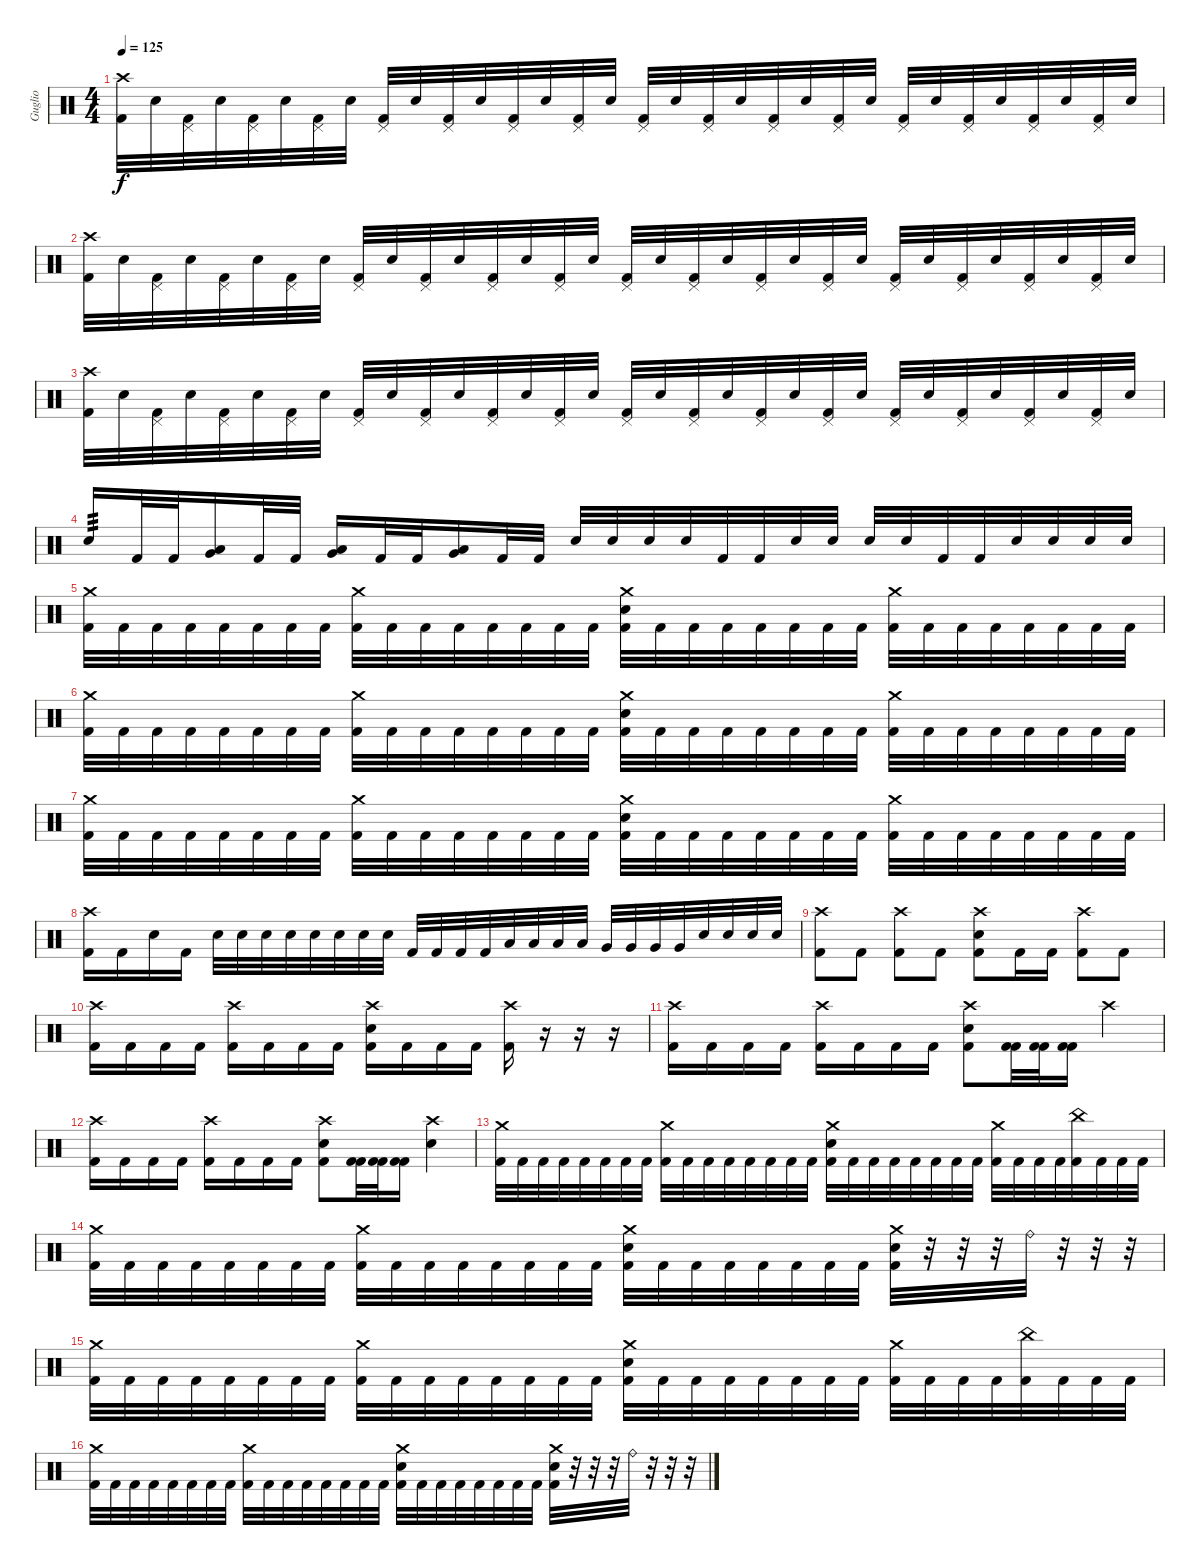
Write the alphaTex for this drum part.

\track ("Guglio" "Guglio") {instrument percussion}
\staff {score}
\articulation defaults
\ts (4 4)
\tempo 125
\clef neutral
\ks c
("Crash high (hit)" "Kick (hit) 2").32{dy f} "Electric Snare (hit)".32 ("Pedal Hi-Hat (hit)" "Kick (hit) 2").32 "Electric Snare (hit)".32 ("Pedal Hi-Hat (hit)" "Kick (hit) 2").32 "Electric Snare (hit)".32 ("Pedal Hi-Hat (hit)" "Kick (hit) 2").32 "Electric Snare (hit)".32 ("Pedal Hi-Hat (hit)" "Kick (hit) 2").32 "Electric Snare (hit)".32 ("Pedal Hi-Hat (hit)" "Kick (hit) 2").32 "Electric Snare (hit)".32 ("Pedal Hi-Hat (hit)" "Kick (hit) 2").32 "Electric Snare (hit)".32 ("Pedal Hi-Hat (hit)" "Kick (hit) 2").32 "Electric Snare (hit)".32 ("Pedal Hi-Hat (hit)" "Kick (hit) 2").32 "Electric Snare (hit)".32 ("Pedal Hi-Hat (hit)" "Kick (hit) 2").32 "Electric Snare (hit)".32 ("Pedal Hi-Hat (hit)" "Kick (hit) 2").32 "Electric Snare (hit)".32 ("Pedal Hi-Hat (hit)" "Kick (hit) 2").32 "Electric Snare (hit)".32 ("Pedal Hi-Hat (hit)" "Kick (hit) 2").32 "Electric Snare (hit)".32 ("Pedal Hi-Hat (hit)" "Kick (hit) 2").32 "Electric Snare (hit)".32 ("Pedal Hi-Hat (hit)" "Kick (hit) 2").32 "Electric Snare (hit)".32 ("Pedal Hi-Hat (hit)" "Kick (hit) 2").32 "Electric Snare (hit)".32 |
("Crash high (hit)" "Kick (hit) 2").32 "Electric Snare (hit)".32 ("Pedal Hi-Hat (hit)" "Kick (hit) 2").32 "Electric Snare (hit)".32 ("Pedal Hi-Hat (hit)" "Kick (hit) 2").32 "Electric Snare (hit)".32 ("Pedal Hi-Hat (hit)" "Kick (hit) 2").32 "Electric Snare (hit)".32 ("Pedal Hi-Hat (hit)" "Kick (hit) 2").32 "Electric Snare (hit)".32 ("Pedal Hi-Hat (hit)" "Kick (hit) 2").32 "Electric Snare (hit)".32 ("Pedal Hi-Hat (hit)" "Kick (hit) 2").32 "Electric Snare (hit)".32 ("Pedal Hi-Hat (hit)" "Kick (hit) 2").32 "Electric Snare (hit)".32 ("Pedal Hi-Hat (hit)" "Kick (hit) 2").32 "Electric Snare (hit)".32 ("Pedal Hi-Hat (hit)" "Kick (hit) 2").32 "Electric Snare (hit)".32 ("Pedal Hi-Hat (hit)" "Kick (hit) 2").32 "Electric Snare (hit)".32 ("Pedal Hi-Hat (hit)" "Kick (hit) 2").32 "Electric Snare (hit)".32 ("Pedal Hi-Hat (hit)" "Kick (hit) 2").32 "Electric Snare (hit)".32 ("Pedal Hi-Hat (hit)" "Kick (hit) 2").32 "Electric Snare (hit)".32 ("Pedal Hi-Hat (hit)" "Kick (hit) 2").32 "Electric Snare (hit)".32 ("Pedal Hi-Hat (hit)" "Kick (hit) 2").32 "Electric Snare (hit)".32 |
("Crash high (hit)" "Kick (hit) 2").32 "Electric Snare (hit)".32 ("Pedal Hi-Hat (hit)" "Kick (hit) 2").32 "Electric Snare (hit)".32 ("Pedal Hi-Hat (hit)" "Kick (hit) 2").32 "Electric Snare (hit)".32 ("Pedal Hi-Hat (hit)" "Kick (hit) 2").32 "Electric Snare (hit)".32 ("Pedal Hi-Hat (hit)" "Kick (hit) 2").32 "Electric Snare (hit)".32 ("Pedal Hi-Hat (hit)" "Kick (hit) 2").32 "Electric Snare (hit)".32 ("Pedal Hi-Hat (hit)" "Kick (hit) 2").32 "Electric Snare (hit)".32 ("Pedal Hi-Hat (hit)" "Kick (hit) 2").32 "Electric Snare (hit)".32 ("Pedal Hi-Hat (hit)" "Kick (hit) 2").32 "Electric Snare (hit)".32 ("Pedal Hi-Hat (hit)" "Kick (hit) 2").32 "Electric Snare (hit)".32 ("Pedal Hi-Hat (hit)" "Kick (hit) 2").32 "Electric Snare (hit)".32 ("Pedal Hi-Hat (hit)" "Kick (hit) 2").32 "Electric Snare (hit)".32 ("Pedal Hi-Hat (hit)" "Kick (hit) 2").32 "Electric Snare (hit)".32 ("Pedal Hi-Hat (hit)" "Kick (hit) 2").32 "Electric Snare (hit)".32 ("Pedal Hi-Hat (hit)" "Kick (hit) 2").32 "Electric Snare (hit)".32 ("Pedal Hi-Hat (hit)" "Kick (hit) 2").32 "Electric Snare (hit)".32 |
"Electric Snare (hit)".16{tp 3} "Kick (hit) 2".32 "Kick (hit) 2".32 ("Very Low Tom (hit)" "Low Tom (hit)").16 "Kick (hit) 2".32 "Kick (hit) 2".32 ("Very Low Tom (hit)" "Low Tom (hit)").16 "Kick (hit) 2".32 "Kick (hit) 2".32 ("Low Floor Tom (hit)" "Very Low Tom (hit)").16 "Kick (hit) 2".32 "Kick (hit) 2".32 "Electric Snare (hit)".32 "Electric Snare (hit)".32 "Electric Snare (hit)".32 "Electric Snare (hit)".32 "Kick (hit) 2".32 "Kick (hit) 2".32 "Electric Snare (hit)".32 "Electric Snare (hit)".32 "Electric Snare (hit)".32 "Electric Snare (hit)".32 "Kick (hit) 2".32 "Kick (hit) 2".32 "Electric Snare (hit)".32 "Electric Snare (hit)".32 "Electric Snare (hit)".32 "Electric Snare (hit)".32 |
("Crash medium (hit)" "Kick (hit) 2").32 "Kick (hit) 2".32 "Kick (hit) 2".32 "Kick (hit) 2".32 "Kick (hit) 2".32 "Kick (hit) 2".32 "Kick (hit) 2".32 "Kick (hit) 2".32 ("Crash medium (hit)" "Kick (hit) 2").32 "Kick (hit) 2".32 "Kick (hit) 2".32 "Kick (hit) 2".32 "Kick (hit) 2".32 "Kick (hit) 2".32 "Kick (hit) 2".32 "Kick (hit) 2".32 ("Crash medium (hit)" "Electric Snare (hit)" "Kick (hit) 2").32 "Kick (hit) 2".32 "Kick (hit) 2".32 "Kick (hit) 2".32 "Kick (hit) 2".32 "Kick (hit) 2".32 "Kick (hit) 2".32 "Kick (hit) 2".32 ("Crash medium (hit)" "Kick (hit) 2").32 "Kick (hit) 2".32 "Kick (hit) 2".32 "Kick (hit) 2".32 "Kick (hit) 2".32 "Kick (hit) 2".32 "Kick (hit) 2".32 "Kick (hit) 2".32 |
("Crash medium (hit)" "Kick (hit) 2").32 "Kick (hit) 2".32 "Kick (hit) 2".32 "Kick (hit) 2".32 "Kick (hit) 2".32 "Kick (hit) 2".32 "Kick (hit) 2".32 "Kick (hit) 2".32 ("Crash medium (hit)" "Kick (hit) 2").32 "Kick (hit) 2".32 "Kick (hit) 2".32 "Kick (hit) 2".32 "Kick (hit) 2".32 "Kick (hit) 2".32 "Kick (hit) 2".32 "Kick (hit) 2".32 ("Crash medium (hit)" "Electric Snare (hit)" "Kick (hit) 2").32 "Kick (hit) 2".32 "Kick (hit) 2".32 "Kick (hit) 2".32 "Kick (hit) 2".32 "Kick (hit) 2".32 "Kick (hit) 2".32 "Kick (hit) 2".32 ("Crash medium (hit)" "Kick (hit) 2").32 "Kick (hit) 2".32 "Kick (hit) 2".32 "Kick (hit) 2".32 "Kick (hit) 2".32 "Kick (hit) 2".32 "Kick (hit) 2".32 "Kick (hit) 2".32 |
("Crash medium (hit)" "Kick (hit) 2").32 "Kick (hit) 2".32 "Kick (hit) 2".32 "Kick (hit) 2".32 "Kick (hit) 2".32 "Kick (hit) 2".32 "Kick (hit) 2".32 "Kick (hit) 2".32 ("Crash medium (hit)" "Kick (hit) 2").32 "Kick (hit) 2".32 "Kick (hit) 2".32 "Kick (hit) 2".32 "Kick (hit) 2".32 "Kick (hit) 2".32 "Kick (hit) 2".32 "Kick (hit) 2".32 ("Crash medium (hit)" "Electric Snare (hit)" "Kick (hit) 2").32 "Kick (hit) 2".32 "Kick (hit) 2".32 "Kick (hit) 2".32 "Kick (hit) 2".32 "Kick (hit) 2".32 "Kick (hit) 2".32 "Kick (hit) 2".32 ("Crash medium (hit)" "Kick (hit) 2").32 "Kick (hit) 2".32 "Kick (hit) 2".32 "Kick (hit) 2".32 "Kick (hit) 2".32 "Kick (hit) 2".32 "Kick (hit) 2".32 "Kick (hit) 2".32 |
("Crash high (hit)" "Kick (hit) 2").16 "Kick (hit) 2".16 "Electric Snare (hit)".16 "Kick (hit) 2".16 "Electric Snare (hit)".32 "Electric Snare (hit)".32 "Electric Snare (hit)".32 "Electric Snare (hit)".32 "Electric Snare (hit)".32 "Electric Snare (hit)".32 "Electric Snare (hit)".32 "Electric Snare (hit)".32 "Kick (hit) 2".32 "Kick (hit) 2".32 "Kick (hit) 2".32 "Kick (hit) 2".32 "Low Floor Tom (hit)".32 "Low Floor Tom (hit)".32 "Low Floor Tom (hit)".32 "Low Floor Tom (hit)".32 "Very Low Tom (hit)".32 "Very Low Tom (hit)".32 "Very Low Tom (hit)".32 "Very Low Tom (hit)".32 "Electric Snare (hit)".32 "Electric Snare (hit)".32 "Electric Snare (hit)".32 "Electric Snare (hit)".32 |
("Crash high (hit)" "Kick (hit) 2").8{volume 16} "Kick (hit) 2".8 ("Crash high (hit)" "Kick (hit) 2").8 "Kick (hit) 2".8 ("Crash high (hit)" "Electric Snare (hit)" "Kick (hit) 2").8 "Kick (hit) 2".16 "Kick (hit) 2".16 ("Crash high (hit)" "Kick (hit) 2").8 "Kick (hit) 2".8 |
("Crash high (hit)" "Kick (hit) 2").16 "Kick (hit) 2".16 "Kick (hit) 2".16 "Kick (hit) 2".16 ("Crash high (hit)" "Kick (hit) 2").16 "Kick (hit) 2".16 "Kick (hit) 2".16 "Kick (hit) 2".16 ("Crash high (hit)" "Electric Snare (hit)" "Kick (hit) 2").16 "Kick (hit) 2".16 "Kick (hit) 2".16 "Kick (hit) 2".16 ("Crash high (hit)" "Kick (hit) 2").16 r.16{volume 0} r.16 r.16 |
("Crash high (hit)" "Kick (hit) 2").16{volume 13} "Kick (hit) 2".16 "Kick (hit) 2".16 "Kick (hit) 2".16 ("Crash high (hit)" "Kick (hit) 2").16 "Kick (hit) 2".16 "Kick (hit) 2".16 "Kick (hit) 2".16 ("Crash high (hit)" "Electric Snare (hit)" "Kick (hit) 2").8 ("Kick (hit) 2" "Kick (hit) 2").32 ("Kick (hit) 2" "Kick (hit) 2").32 ("Kick (hit) 2" "Kick (hit) 2").16 "Crash high (hit)".4 |
("Crash high (hit)" "Kick (hit) 2").16 "Kick (hit) 2".16 "Kick (hit) 2".16 "Kick (hit) 2".16 ("Crash high (hit)" "Kick (hit) 2").16 "Kick (hit) 2".16 "Kick (hit) 2".16 "Kick (hit) 2".16 ("Crash high (hit)" "Electric Snare (hit)" "Kick (hit) 2").8 ("Kick (hit) 2" "Kick (hit) 2").32 ("Kick (hit) 2" "Kick (hit) 2").32 ("Kick (hit) 2" "Kick (hit) 2").16 ("Electric Snare (hit)" "Crash high (hit)").4 |
("Crash medium (hit)" "Kick (hit) 2").32 "Kick (hit) 2".32 "Kick (hit) 2".32 "Kick (hit) 2".32 "Kick (hit) 2".32 "Kick (hit) 2".32 "Kick (hit) 2".32 "Kick (hit) 2".32 ("Crash medium (hit)" "Kick (hit) 2").32 "Kick (hit) 2".32 "Kick (hit) 2".32 "Kick (hit) 2".32 "Kick (hit) 2".32 "Kick (hit) 2".32 "Kick (hit) 2".32 "Kick (hit) 2".32 ("Crash medium (hit)" "Electric Snare (hit)" "Kick (hit) 2").32 "Kick (hit) 2".32 "Kick (hit) 2".32 "Kick (hit) 2".32 "Kick (hit) 2".32 "Kick (hit) 2".32 "Kick (hit) 2".32 "Kick (hit) 2".32 ("Crash medium (hit)" "Kick (hit) 2").32 "Kick (hit) 2".32 "Kick (hit) 2".32 "Kick (hit) 2".32 ("China (hit)" "Kick (hit) 2").32 "Kick (hit) 2".32 "Kick (hit) 2".32 "Kick (hit) 2".32 |
("Crash medium (hit)" "Kick (hit) 2").32 "Kick (hit) 2".32 "Kick (hit) 2".32 "Kick (hit) 2".32 "Kick (hit) 2".32 "Kick (hit) 2".32 "Kick (hit) 2".32 "Kick (hit) 2".32 ("Crash medium (hit)" "Kick (hit) 2").32 "Kick (hit) 2".32 "Kick (hit) 2".32 "Kick (hit) 2".32 "Kick (hit) 2".32 "Kick (hit) 2".32 "Kick (hit) 2".32 "Kick (hit) 2".32 ("Crash medium (hit)" "Electric Snare (hit)" "Kick (hit) 2").32 "Kick (hit) 2".32 "Kick (hit) 2".32 "Kick (hit) 2".32 "Kick (hit) 2".32 "Kick (hit) 2".32 "Kick (hit) 2".32 "Kick (hit) 2".32 ("Crash medium (hit)" "Electric Snare (hit)" "Kick (hit) 2").32 r.32 r.32 r.32 "Ride (bell)".32 r.32 r.32 r.32 |
("Crash medium (hit)" "Kick (hit) 2").32 "Kick (hit) 2".32 "Kick (hit) 2".32 "Kick (hit) 2".32 "Kick (hit) 2".32 "Kick (hit) 2".32 "Kick (hit) 2".32 "Kick (hit) 2".32 ("Crash medium (hit)" "Kick (hit) 2").32 "Kick (hit) 2".32 "Kick (hit) 2".32 "Kick (hit) 2".32 "Kick (hit) 2".32 "Kick (hit) 2".32 "Kick (hit) 2".32 "Kick (hit) 2".32 ("Crash medium (hit)" "Electric Snare (hit)" "Kick (hit) 2").32 "Kick (hit) 2".32 "Kick (hit) 2".32 "Kick (hit) 2".32 "Kick (hit) 2".32 "Kick (hit) 2".32 "Kick (hit) 2".32 "Kick (hit) 2".32 ("Crash medium (hit)" "Kick (hit) 2").32 "Kick (hit) 2".32 "Kick (hit) 2".32 "Kick (hit) 2".32 ("China (hit)" "Kick (hit) 2").32 "Kick (hit) 2".32 "Kick (hit) 2".32 "Kick (hit) 2".32 |
("Crash medium (hit)" "Kick (hit) 2").32 "Kick (hit) 2".32 "Kick (hit) 2".32 "Kick (hit) 2".32 "Kick (hit) 2".32 "Kick (hit) 2".32 "Kick (hit) 2".32 "Kick (hit) 2".32 ("Crash medium (hit)" "Kick (hit) 2").32 "Kick (hit) 2".32 "Kick (hit) 2".32 "Kick (hit) 2".32 "Kick (hit) 2".32 "Kick (hit) 2".32 "Kick (hit) 2".32 "Kick (hit) 2".32 ("Crash medium (hit)" "Electric Snare (hit)" "Kick (hit) 2").32 "Kick (hit) 2".32 "Kick (hit) 2".32 "Kick (hit) 2".32 "Kick (hit) 2".32 "Kick (hit) 2".32 "Kick (hit) 2".32 "Kick (hit) 2".32 ("Crash medium (hit)" "Electric Snare (hit)" "Kick (hit) 2").32 r.32 r.32 r.32 "Ride (bell)".32 r.32 r.32 r.32
